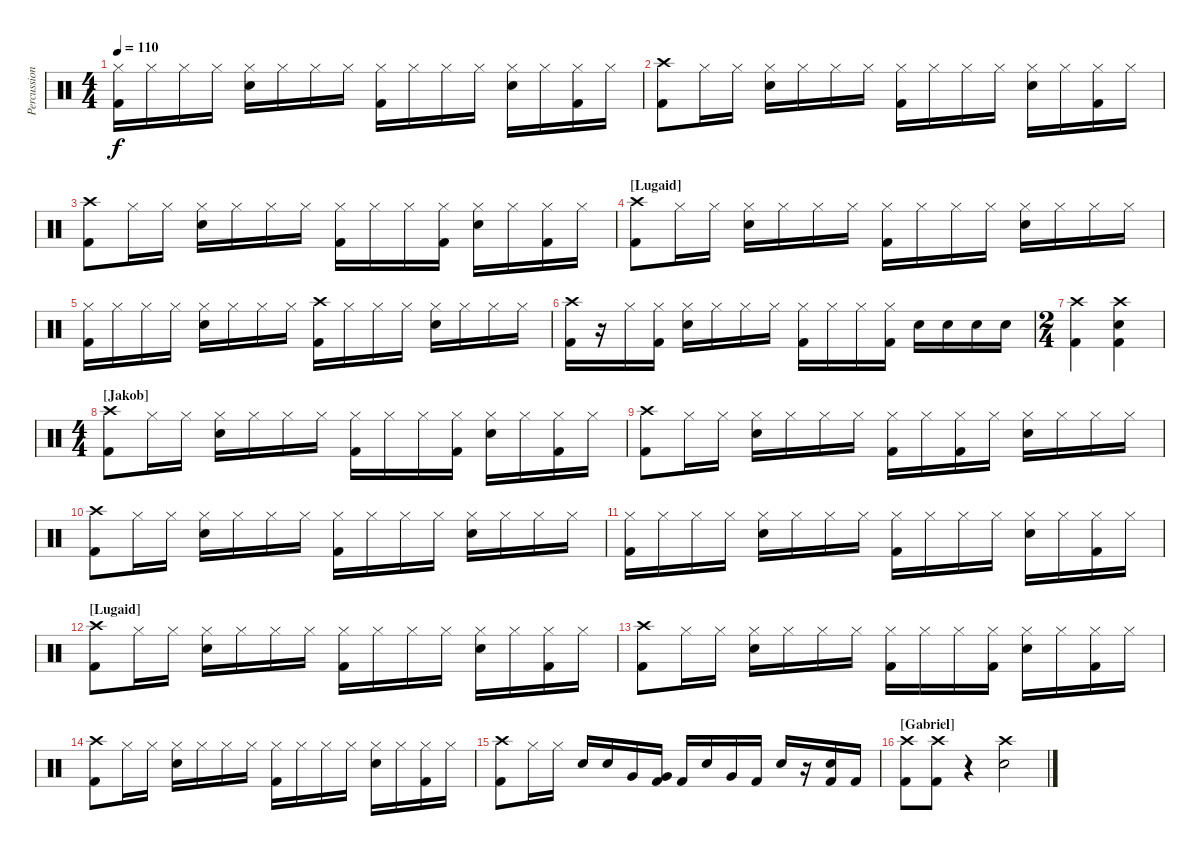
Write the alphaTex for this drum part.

\track ("Percussions" "Percussion") {instrument percussion}
\staff {score}
\articulation defaults
\ts (4 4)
\tempo 110
\clef neutral
\ks c
("Hi-Hat (closed)" "Kick (hit) 2").16{dy f} "Hi-Hat (closed)".16 "Hi-Hat (closed)".16 "Hi-Hat (closed)".16 ("Hi-Hat (closed)" "Electric Snare (hit)").16 "Hi-Hat (closed)".16 "Hi-Hat (closed)".16 "Hi-Hat (closed)".16 ("Hi-Hat (closed)" "Kick (hit) 2").16 "Hi-Hat (closed)".16 "Hi-Hat (closed)".16 "Hi-Hat (closed)".16 ("Hi-Hat (closed)" "Electric Snare (hit)").16 "Hi-Hat (closed)".16 ("Hi-Hat (closed)" "Kick (hit) 2").16 "Hi-Hat (closed)".16 |
("Crash high (hit)" "Kick (hit) 2").8 "Hi-Hat (closed)".16 "Hi-Hat (closed)".16 ("Hi-Hat (closed)" "Electric Snare (hit)").16 "Hi-Hat (closed)".16 "Hi-Hat (closed)".16 "Hi-Hat (closed)".16 ("Hi-Hat (closed)" "Kick (hit) 2").16 "Hi-Hat (closed)".16 "Hi-Hat (closed)".16 "Hi-Hat (closed)".16 ("Hi-Hat (closed)" "Electric Snare (hit)").16 "Hi-Hat (closed)".16 ("Hi-Hat (closed)" "Kick (hit) 2").16 "Hi-Hat (closed)".16 |
("Crash high (hit)" "Kick (hit) 2").8 "Hi-Hat (closed)".16 "Hi-Hat (closed)".16 ("Hi-Hat (closed)" "Electric Snare (hit)").16 "Hi-Hat (closed)".16 "Hi-Hat (closed)".16 "Hi-Hat (closed)".16 ("Hi-Hat (closed)" "Kick (hit) 2").16 "Hi-Hat (closed)".16 "Hi-Hat (closed)".16 ("Hi-Hat (closed)" "Kick (hit) 2").16 ("Hi-Hat (closed)" "Electric Snare (hit)").16 "Hi-Hat (closed)".16 ("Hi-Hat (closed)" "Kick (hit) 2").16 "Hi-Hat (closed)".16 |
\section ("" "[Lugaid]")
("Crash high (hit)" "Kick (hit) 2").8 "Hi-Hat (closed)".16 "Hi-Hat (closed)".16 ("Hi-Hat (closed)" "Electric Snare (hit)").16 "Hi-Hat (closed)".16 "Hi-Hat (closed)".16 "Hi-Hat (closed)".16 ("Hi-Hat (closed)" "Kick (hit) 2").16 "Hi-Hat (closed)".16 "Hi-Hat (closed)".16 "Hi-Hat (closed)".16 ("Hi-Hat (closed)" "Electric Snare (hit)").16 "Hi-Hat (closed)".16 "Hi-Hat (closed)".16 "Hi-Hat (closed)".16 |
("Hi-Hat (closed)" "Kick (hit) 2").16 "Hi-Hat (closed)".16 "Hi-Hat (closed)".16 "Hi-Hat (closed)".16 ("Hi-Hat (closed)" "Electric Snare (hit)").16 "Hi-Hat (closed)".16 "Hi-Hat (closed)".16 "Hi-Hat (closed)".16 ("Crash high (hit)" "Kick (hit) 2").16 "Hi-Hat (closed)".16 "Hi-Hat (closed)".16 "Hi-Hat (closed)".16 ("Hi-Hat (closed)" "Electric Snare (hit)").16 "Hi-Hat (closed)".16 "Hi-Hat (closed)".16 "Hi-Hat (closed)".16 |
("Crash high (hit)" "Kick (hit) 2").16 r.16 "Hi-Hat (closed)".16 ("Hi-Hat (closed)" "Kick (hit) 2").16 ("Hi-Hat (closed)" "Electric Snare (hit)").16 "Hi-Hat (closed)".16 "Hi-Hat (closed)".16 "Hi-Hat (closed)".16 ("Hi-Hat (closed)" "Kick (hit) 2").16 "Hi-Hat (closed)".16 "Hi-Hat (closed)".16 ("Hi-Hat (closed)" "Kick (hit) 2").16 "Electric Snare (hit)".16 "Electric Snare (hit)".16 "Electric Snare (hit)".16 "Electric Snare (hit)".16 |
\ts (2 4)
("Crash high (hit)" "Kick (hit) 2").4 ("Crash high (hit)" "Electric Snare (hit)" "Kick (hit) 2").4 |
\ts (4 4)
\section ("" "[Jakob]")
("Crash high (hit)" "Kick (hit) 2").8 "Hi-Hat (closed)".16 "Hi-Hat (closed)".16 ("Hi-Hat (closed)" "Electric Snare (hit)").16 "Hi-Hat (closed)".16 "Hi-Hat (closed)".16 "Hi-Hat (closed)".16 ("Hi-Hat (closed)" "Kick (hit) 2").16 "Hi-Hat (closed)".16 "Hi-Hat (closed)".16 ("Hi-Hat (closed)" "Kick (hit) 2").16 ("Hi-Hat (closed)" "Electric Snare (hit)").16 "Hi-Hat (closed)".16 ("Hi-Hat (closed)" "Kick (hit) 2").16 "Hi-Hat (closed)".16 |
("Crash high (hit)" "Kick (hit) 2").8 "Hi-Hat (closed)".16 "Hi-Hat (closed)".16 ("Hi-Hat (closed)" "Electric Snare (hit)").16 "Hi-Hat (closed)".16 "Hi-Hat (closed)".16 "Hi-Hat (closed)".16 ("Hi-Hat (closed)" "Kick (hit) 2").16 "Hi-Hat (closed)".16 ("Hi-Hat (closed)" "Kick (hit) 2").16 "Hi-Hat (closed)".16 ("Hi-Hat (closed)" "Electric Snare (hit)").16 "Hi-Hat (closed)".16 "Hi-Hat (closed)".16 "Hi-Hat (closed)".16 |
("Crash high (hit)" "Kick (hit) 2").8 "Hi-Hat (closed)".16 "Hi-Hat (closed)".16 ("Hi-Hat (closed)" "Electric Snare (hit)").16 "Hi-Hat (closed)".16 "Hi-Hat (closed)".16 "Hi-Hat (closed)".16 ("Hi-Hat (closed)" "Kick (hit) 2").16 "Hi-Hat (closed)".16 "Hi-Hat (closed)".16 "Hi-Hat (closed)".16 ("Hi-Hat (closed)" "Electric Snare (hit)").16 "Hi-Hat (closed)".16 "Hi-Hat (closed)".16 "Hi-Hat (closed)".16 |
("Hi-Hat (closed)" "Kick (hit) 2").16 "Hi-Hat (closed)".16 "Hi-Hat (closed)".16 "Hi-Hat (closed)".16 ("Hi-Hat (closed)" "Electric Snare (hit)").16 "Hi-Hat (closed)".16 "Hi-Hat (closed)".16 "Hi-Hat (closed)".16 ("Hi-Hat (closed)" "Kick (hit) 2").16 "Hi-Hat (closed)".16 "Hi-Hat (closed)".16 "Hi-Hat (closed)".16 ("Hi-Hat (closed)" "Electric Snare (hit)").16 "Hi-Hat (closed)".16 ("Hi-Hat (closed)" "Kick (hit) 2").16 "Hi-Hat (closed)".16 |
\section ("" "[Lugaid]")
("Crash high (hit)" "Kick (hit) 2").8 "Hi-Hat (closed)".16 "Hi-Hat (closed)".16 ("Hi-Hat (closed)" "Electric Snare (hit)").16 "Hi-Hat (closed)".16 "Hi-Hat (closed)".16 "Hi-Hat (closed)".16 ("Hi-Hat (closed)" "Kick (hit) 2").16 "Hi-Hat (closed)".16 "Hi-Hat (closed)".16 "Hi-Hat (closed)".16 ("Hi-Hat (closed)" "Electric Snare (hit)").16 "Hi-Hat (closed)".16 ("Hi-Hat (closed)" "Kick (hit) 2").16 "Hi-Hat (closed)".16 |
("Crash high (hit)" "Kick (hit) 2").8 "Hi-Hat (closed)".16 "Hi-Hat (closed)".16 ("Hi-Hat (closed)" "Electric Snare (hit)").16 "Hi-Hat (closed)".16 "Hi-Hat (closed)".16 "Hi-Hat (closed)".16 ("Hi-Hat (closed)" "Kick (hit) 2").16 "Hi-Hat (closed)".16 "Hi-Hat (closed)".16 ("Hi-Hat (closed)" "Kick (hit) 2").16 ("Hi-Hat (closed)" "Electric Snare (hit)").16 "Hi-Hat (closed)".16 ("Hi-Hat (closed)" "Kick (hit) 2").16 "Hi-Hat (closed)".16 |
("Crash high (hit)" "Kick (hit) 2").8 "Hi-Hat (closed)".16 "Hi-Hat (closed)".16 ("Hi-Hat (closed)" "Electric Snare (hit)").16 "Hi-Hat (closed)".16 "Hi-Hat (closed)".16 "Hi-Hat (closed)".16 ("Hi-Hat (closed)" "Kick (hit) 2").16 "Hi-Hat (closed)".16 "Hi-Hat (closed)".16 "Hi-Hat (closed)".16 ("Hi-Hat (closed)" "Electric Snare (hit)").16 "Hi-Hat (closed)".16 ("Hi-Hat (closed)" "Kick (hit) 2").16 "Hi-Hat (closed)".16 |
("Crash high (hit)" "Kick (hit) 2").8 "Hi-Hat (closed)".16 "Hi-Hat (closed)".16 "Electric Snare (hit)".16 "Electric Snare (hit)".16 "Very Low Tom (hit)".16 ("Very Low Tom (hit)" "Kick (hit) 2").16 "Kick (hit) 2".16 "Electric Snare (hit)".16 "Very Low Tom (hit)".16 "Kick (hit) 2".16 "Electric Snare (hit)".16 r.16 ("Electric Snare (hit)" "Kick (hit) 2").16 "Kick (hit) 2".16 |
\section ("" "[Gabriel]")
("Crash high (hit)" "Kick (hit) 2").8 ("Crash high (hit)" "Kick (hit) 2").8 r.4 ("Crash high (hit)" "Electric Snare (hit)").2
